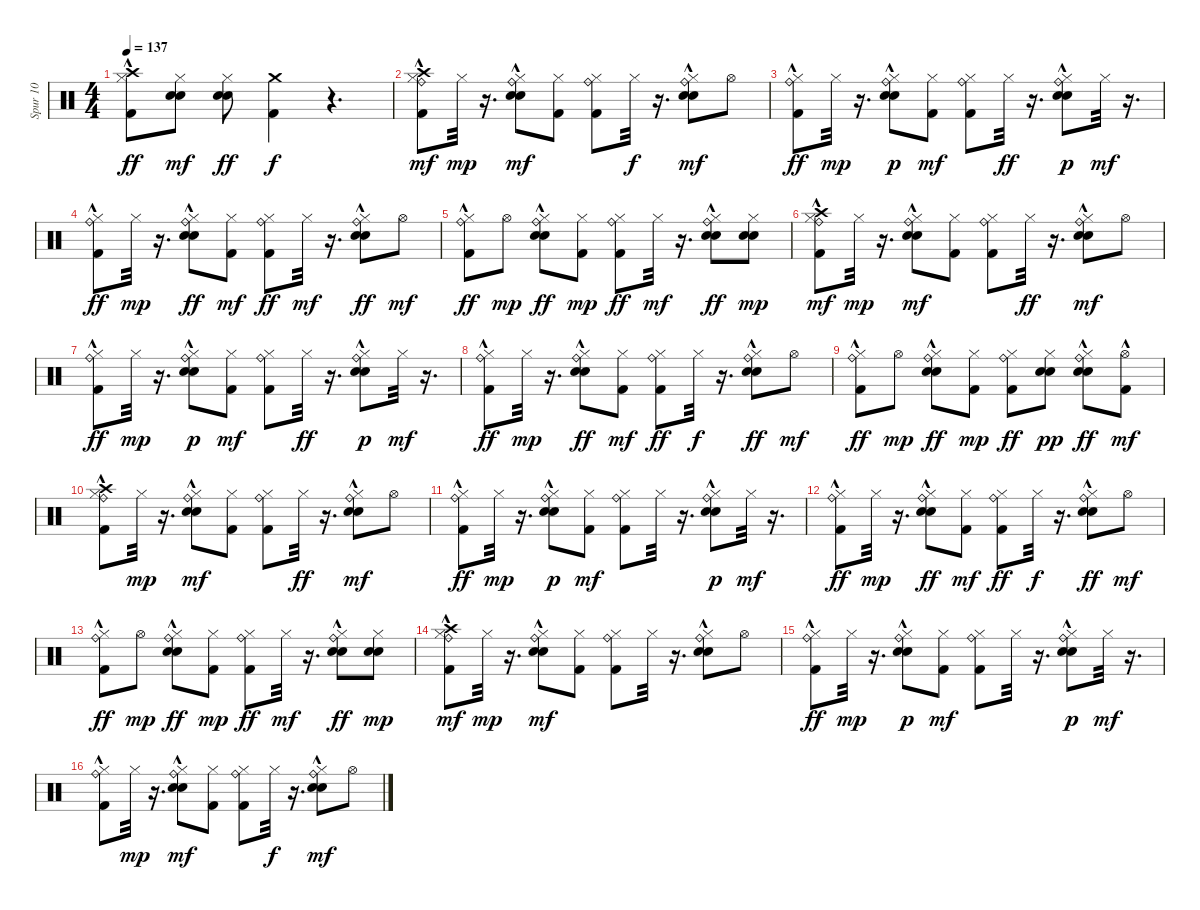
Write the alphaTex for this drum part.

\track ("Spur 10" "Spur 10") {instrument percussion}
\staff {score}
\articulation defaults
\ts (4 4)
\tempo 137
\clef neutral
\ks c
("Kick (hit) 2"{hac} "Crash high (hit)" "Hi-Hat (closed)").8{dy ff} ("Electric Snare (hit)" "Snare (hit) 2" "Hi-Hat (closed)").8{dy mf} ("Electric Snare (hit)" "Snare (hit) 2" "Hi-Hat (closed)").8{dy ff} ("Kick (hit) 2" "Crash medium (hit)").4{dy f} r.4{d} |
("Kick (hit) 2"{hac} "Hi-Hat (closed)" "Ride (bell)"{hac} "Crash high (hit)").8{dy mf} "Hi-Hat (closed)".32{dy mp} r.16{d} ("Electric Snare (hit)"{hac} "Snare (hit) 2"{hac} "Hi-Hat (closed)" "Ride (bell)"{hac}).8{dy mf} ("Kick (hit) 2" "Hi-Hat (closed)").8 ("Kick (hit) 2" "Hi-Hat (closed)" "Ride (bell)").8 "Hi-Hat (closed)".32{dy f} r.16{d} ("Electric Snare (hit)"{hac} "Snare (hit) 2"{hac} "Hi-Hat (closed)" "Ride (bell)").8{dy mf} "Hi-Hat (open)".8 |
("Kick (hit) 2"{hac} "Ride (bell)"{hac} "Hi-Hat (closed)").8{dy ff} "Hi-Hat (closed)".32{dy mp} r.16{d} ("Hi-Hat (closed)" "Ride (bell)"{hac} "Electric Snare (hit)"{hac} "Snare (hit) 2"{hac}).8{dy p} ("Kick (hit) 2" "Hi-Hat (closed)").8{dy mf} ("Kick (hit) 2" "Hi-Hat (closed)" "Ride (bell)").8 "Hi-Hat (closed)".32{dy ff} r.16{d} ("Hi-Hat (closed)" "Ride (bell)"{hac} "Electric Snare (hit)"{hac} "Snare (hit) 2"{hac}).8{dy p} "Hi-Hat (closed)".32{dy mf} r.16{d} |
("Kick (hit) 2"{hac} "Ride (bell)"{hac} "Hi-Hat (closed)").8{dy ff} "Hi-Hat (closed)".32{dy mp} r.16{d} ("Ride (bell)"{hac} "Electric Snare (hit)"{hac} "Snare (hit) 2"{hac} "Hi-Hat (closed)").8{dy ff} ("Kick (hit) 2" "Hi-Hat (closed)").8{dy mf} ("Kick (hit) 2" "Ride (bell)" "Hi-Hat (closed)").8{dy ff} "Hi-Hat (closed)".32{dy mf} r.16{d} ("Ride (bell)" "Electric Snare (hit)"{hac} "Snare (hit) 2"{hac} "Hi-Hat (closed)").8{dy ff} "Hi-Hat (open)".8{dy mf} |
("Ride (bell)"{hac} "Kick (hit) 2"{hac} "Hi-Hat (closed)").8{dy ff} "Hi-Hat (open)".8{dy mp} ("Ride (bell)"{hac} "Electric Snare (hit)"{hac} "Snare (hit) 2"{hac} "Hi-Hat (closed)").8{dy ff} ("Kick (hit) 2" "Hi-Hat (closed)").8{dy mp} ("Kick (hit) 2" "Ride (bell)" "Hi-Hat (closed)").8{dy ff} "Hi-Hat (closed)".32{dy mf} r.16{d} ("Ride (bell)"{hac} "Electric Snare (hit)" "Snare (hit) 2" "Hi-Hat (closed)").8{dy ff} ("Electric Snare (hit)" "Snare (hit) 2" "Hi-Hat (closed)").8{dy mp} |
("Kick (hit) 2"{hac} "Hi-Hat (closed)" "Crash high (hit)" "Ride (bell)"{hac}).8{dy mf} "Hi-Hat (closed)".32{dy mp} r.16{d} ("Electric Snare (hit)"{hac} "Snare (hit) 2"{hac} "Hi-Hat (closed)" "Ride (bell)"{hac}).8{dy mf} ("Kick (hit) 2" "Hi-Hat (closed)").8 ("Kick (hit) 2" "Hi-Hat (closed)" "Ride (bell)").8 "Hi-Hat (closed)".32{dy ff} r.16{d} ("Electric Snare (hit)"{hac} "Snare (hit) 2"{hac} "Hi-Hat (closed)" "Ride (bell)").8{dy mf} "Hi-Hat (open)".8 |
("Kick (hit) 2"{hac} "Ride (bell)"{hac} "Hi-Hat (closed)").8{dy ff} "Hi-Hat (closed)".32{dy mp} r.16{d} ("Hi-Hat (closed)" "Ride (bell)"{hac} "Electric Snare (hit)"{hac} "Snare (hit) 2"{hac}).8{dy p} ("Kick (hit) 2" "Hi-Hat (closed)").8{dy mf} ("Kick (hit) 2" "Hi-Hat (closed)" "Ride (bell)").8 "Hi-Hat (closed)".32{dy ff} r.16{d} ("Hi-Hat (closed)" "Ride (bell)"{hac} "Electric Snare (hit)"{hac} "Snare (hit) 2"{hac}).8{dy p} "Hi-Hat (closed)".32{dy mf} r.16{d} |
("Kick (hit) 2"{hac} "Ride (bell)"{hac} "Hi-Hat (closed)").8{dy ff} "Hi-Hat (closed)".32{dy mp} r.16{d} ("Ride (bell)"{hac} "Electric Snare (hit)"{hac} "Snare (hit) 2"{hac} "Hi-Hat (closed)").8{dy ff} ("Kick (hit) 2" "Hi-Hat (closed)").8{dy mf} ("Kick (hit) 2" "Ride (bell)" "Hi-Hat (closed)").8{dy ff} "Hi-Hat (closed)".32{dy f} r.16{d} ("Ride (bell)" "Electric Snare (hit)"{hac} "Snare (hit) 2"{hac} "Hi-Hat (closed)").8{dy ff} "Hi-Hat (open)".8{dy mf} |
("Ride (bell)"{hac} "Kick (hit) 2"{hac} "Hi-Hat (closed)").8{dy ff} "Hi-Hat (open)".8{dy mp} ("Ride (bell)"{hac} "Electric Snare (hit)"{hac} "Snare (hit) 2"{hac} "Hi-Hat (closed)").8{dy ff} ("Kick (hit) 2" "Hi-Hat (closed)").8{dy mp} ("Kick (hit) 2" "Ride (bell)" "Hi-Hat (closed)").8{dy ff} ("Electric Snare (hit)" "Snare (hit) 2" "Hi-Hat (closed)").8{dy pp} ("Ride (bell)"{hac} "Electric Snare (hit)" "Snare (hit) 2" "Hi-Hat (closed)").8{dy ff} ("Kick (hit) 2"{hac} "Hi-Hat (open)").8{dy mf} |
("Kick (hit) 2"{hac} "Hi-Hat (closed)" "Ride (bell)"{hac} "Crash high (hit)").8 "Hi-Hat (closed)".32{dy mp} r.16{d} ("Electric Snare (hit)"{hac} "Snare (hit) 2"{hac} "Hi-Hat (closed)" "Ride (bell)"{hac}).8{dy mf} ("Kick (hit) 2" "Hi-Hat (closed)").8 ("Kick (hit) 2" "Hi-Hat (closed)" "Ride (bell)").8 "Hi-Hat (closed)".32{dy ff} r.16{d} ("Electric Snare (hit)"{hac} "Snare (hit) 2"{hac} "Hi-Hat (closed)" "Ride (bell)").8{dy mf} "Hi-Hat (open)".8 |
("Kick (hit) 2"{hac} "Ride (bell)"{hac} "Hi-Hat (closed)").8{dy ff} "Hi-Hat (closed)".32{dy mp} r.16{d} ("Hi-Hat (closed)" "Ride (bell)"{hac} "Electric Snare (hit)"{hac} "Snare (hit) 2"{hac}).8{dy p} ("Kick (hit) 2" "Hi-Hat (closed)").8{dy mf} ("Kick (hit) 2" "Hi-Hat (closed)" "Ride (bell)").8 "Hi-Hat (closed)".32 r.16{d} ("Hi-Hat (closed)" "Ride (bell)"{hac} "Electric Snare (hit)"{hac} "Snare (hit) 2"{hac}).8{dy p} "Hi-Hat (closed)".32{dy mf} r.16{d} |
("Kick (hit) 2"{hac} "Ride (bell)"{hac} "Hi-Hat (closed)").8{dy ff} "Hi-Hat (closed)".32{dy mp} r.16{d} ("Ride (bell)"{hac} "Electric Snare (hit)"{hac} "Snare (hit) 2"{hac} "Hi-Hat (closed)").8{dy ff} ("Kick (hit) 2" "Hi-Hat (closed)").8{dy mf} ("Kick (hit) 2" "Ride (bell)" "Hi-Hat (closed)").8{dy ff} "Hi-Hat (closed)".32{dy f} r.16{d} ("Ride (bell)" "Electric Snare (hit)"{hac} "Snare (hit) 2"{hac} "Hi-Hat (closed)").8{dy ff} "Hi-Hat (open)".8{dy mf} |
("Ride (bell)"{hac} "Kick (hit) 2"{hac} "Hi-Hat (closed)").8{dy ff} "Hi-Hat (open)".8{dy mp} ("Ride (bell)"{hac} "Electric Snare (hit)"{hac} "Snare (hit) 2"{hac} "Hi-Hat (closed)").8{dy ff} ("Kick (hit) 2" "Hi-Hat (closed)").8{dy mp} ("Kick (hit) 2" "Ride (bell)" "Hi-Hat (closed)").8{dy ff} "Hi-Hat (closed)".32{dy mf} r.16{d} ("Ride (bell)"{hac} "Electric Snare (hit)" "Snare (hit) 2" "Hi-Hat (closed)").8{dy ff} ("Electric Snare (hit)" "Snare (hit) 2" "Hi-Hat (closed)").8{dy mp} |
("Kick (hit) 2"{hac} "Hi-Hat (closed)" "Crash high (hit)" "Ride (bell)"{hac}).8{dy mf} "Hi-Hat (closed)".32{dy mp} r.16{d} ("Electric Snare (hit)"{hac} "Snare (hit) 2"{hac} "Hi-Hat (closed)" "Ride (bell)"{hac}).8{dy mf} ("Kick (hit) 2" "Hi-Hat (closed)").8 ("Kick (hit) 2" "Hi-Hat (closed)" "Ride (bell)").8 "Hi-Hat (closed)".32 r.16{d} ("Electric Snare (hit)"{hac} "Snare (hit) 2"{hac} "Hi-Hat (closed)" "Ride (bell)").8 "Hi-Hat (open)".8 |
("Kick (hit) 2"{hac} "Ride (bell)"{hac} "Hi-Hat (closed)").8{dy ff} "Hi-Hat (closed)".32{dy mp} r.16{d} ("Hi-Hat (closed)" "Ride (bell)"{hac} "Electric Snare (hit)"{hac} "Snare (hit) 2"{hac}).8{dy p} ("Kick (hit) 2" "Hi-Hat (closed)").8{dy mf} ("Kick (hit) 2" "Hi-Hat (closed)" "Ride (bell)").8 "Hi-Hat (closed)".32 r.16{d} ("Hi-Hat (closed)" "Ride (bell)"{hac} "Electric Snare (hit)"{hac} "Snare (hit) 2"{hac}).8{dy p} "Hi-Hat (closed)".32{dy mf} r.16{d} |
("Kick (hit) 2"{hac} "Hi-Hat (closed)" "Ride (bell)"{hac}).8 "Hi-Hat (closed)".32{dy mp} r.16{d} ("Electric Snare (hit)"{hac} "Snare (hit) 2"{hac} "Hi-Hat (closed)" "Ride (bell)"{hac}).8{dy mf} ("Kick (hit) 2" "Hi-Hat (closed)").8 ("Kick (hit) 2" "Hi-Hat (closed)" "Ride (bell)").8 "Hi-Hat (closed)".32{dy f} r.16{d} ("Electric Snare (hit)"{hac} "Snare (hit) 2"{hac} "Hi-Hat (closed)" "Ride (bell)").8{dy mf} "Hi-Hat (open)".8
